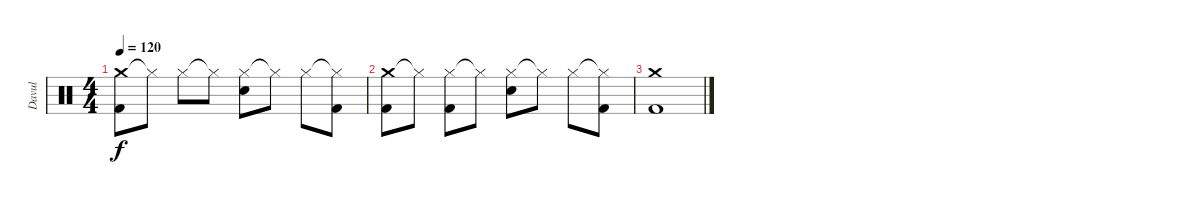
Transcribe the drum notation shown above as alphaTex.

\track ("Davul" "Davul") {instrument percussion}
\staff {score}
\articulation defaults
\ts (4 4)
\tempo 120
\clef neutral
\ks c
("Crash medium (hit)" "Kick (hit) 2").8{dy f} "Hi-Hat (closed)"{t}.8 "Hi-Hat (closed)".8 "Hi-Hat (closed)"{t}.8 ("Hi-Hat (closed)" "Snare (hit) 2").8 "Hi-Hat (closed)"{t}.8 "Hi-Hat (closed)".8 ("Hi-Hat (closed)"{t} "Kick (hit) 2").8 |
("Crash medium (hit)" "Kick (hit) 2").8 "Hi-Hat (closed)"{t}.8 ("Hi-Hat (closed)" "Kick (hit) 2").8 "Hi-Hat (closed)"{t}.8 ("Hi-Hat (closed)" "Snare (hit) 2").8 "Hi-Hat (closed)"{t}.8 "Hi-Hat (closed)".8 ("Hi-Hat (closed)"{t} "Kick (hit) 2").8 |
("Crash medium (hit)" "Kick (hit) 2").1
